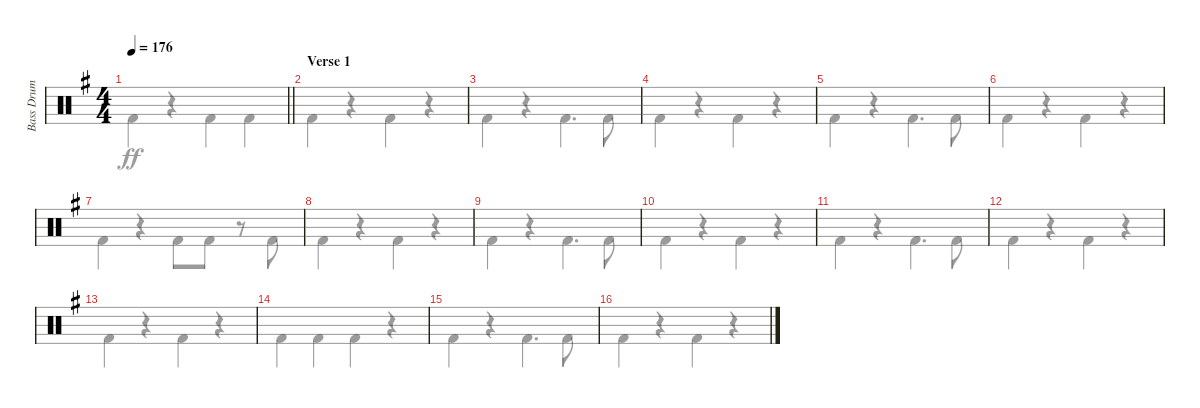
\track ("Bass Drum" "Bass Drum") {instrument percussion}
\staff {score}
\articulation defaults
\voice
\ts (4 4)
\tempo 176
\clef neutral
\barLineRight lightlight
\ks eminor
|
\section ("" "Verse 1")
|
|
|
|
|
|
|
|
|
|
|
|
|
|
\voice
\clef neutral
\barLineRight lightlight
\ks eminor "Kick (hit) 2".4{dy ff}
r.4 "Kick (hit) 2".4 "Kick (hit) 2".4 |
"Kick (hit) 2".4 r.4 "Kick (hit) 2".4 r.4 |
"Kick (hit) 2".4 r.4 "Kick (hit) 2".4{d} "Kick (hit) 2".8 |
"Kick (hit) 2".4 r.4 "Kick (hit) 2".4 r.4 |
"Kick (hit) 2".4 r.4 "Kick (hit) 2".4{d} "Kick (hit) 2".8 |
"Kick (hit) 2".4 r.4 "Kick (hit) 2".4 r.4 |
"Kick (hit) 2".4 r.4 "Kick (hit) 2".8 "Kick (hit) 2".8 r.8 "Kick (hit) 2".8 |
"Kick (hit) 2".4 r.4 "Kick (hit) 2".4 r.4 |
"Kick (hit) 2".4 r.4 "Kick (hit) 2".4{d} "Kick (hit) 2".8 |
"Kick (hit) 2".4 r.4 "Kick (hit) 2".4 r.4 |
"Kick (hit) 2".4 r.4 "Kick (hit) 2".4{d} "Kick (hit) 2".8 |
"Kick (hit) 2".4 r.4 "Kick (hit) 2".4 r.4 |
"Kick (hit) 2".4 r.4 "Kick (hit) 2".4 r.4 |
"Kick (hit) 2".4 "Kick (hit) 2".4 "Kick (hit) 2".4 r.4 |
"Kick (hit) 2".4 r.4 "Kick (hit) 2".4{d} "Kick (hit) 2".8 |
"Kick (hit) 2".4 r.4 "Kick (hit) 2".4 r.4
